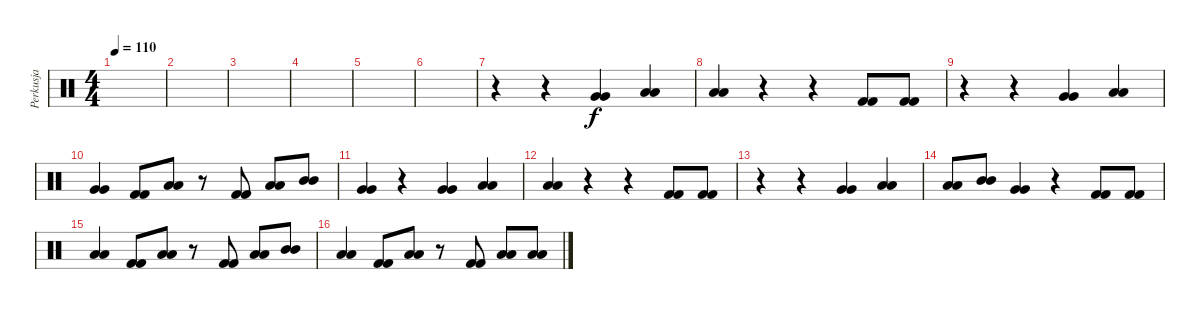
\track ("Perkusja" "Perkusja") {instrument percussion}
\staff {score}
\articulation defaults
\ts (4 4)
\tempo 110
\clef neutral
\ks c
|
|
|
|
|
|
r.4 r.4 ("Very Low Tom (hit)" "Very Low Tom (hit)").4 ("Low Floor Tom (hit)" "Low Floor Tom (hit)").4 |
("Low Tom (hit)" "Low Tom (hit)").4 r.4 r.4 ("Kick (hit) 2" "Kick (hit) 2").8 ("Kick (hit) 2" "Kick (hit) 2").8 |
r.4 r.4 ("Very Low Tom (hit)" "Very Low Tom (hit)").4 ("Low Floor Tom (hit)" "Low Floor Tom (hit)").4 |
("Very Low Tom (hit)" "Very Low Tom (hit)").4 ("Kick (hit) 2" "Kick (hit) 2").8 ("Low Tom (hit)" "Low Tom (hit)").8 r.8 ("Kick (hit) 2" "Kick (hit) 2").8 ("Low Tom (hit)" "Low Tom (hit)").8 ("Mid Tom (hit)" "Mid Tom (hit)").8 |
("Very Low Tom (hit)" "Very Low Tom (hit)").4 r.4 ("Very Low Tom (hit)" "Very Low Tom (hit)").4 ("Low Floor Tom (hit)" "Low Floor Tom (hit)").4 |
("Low Tom (hit)" "Low Tom (hit)").4 r.4 r.4 ("Kick (hit) 2" "Kick (hit) 2").8 ("Kick (hit) 2" "Kick (hit) 2").8 |
r.4 r.4 ("Very Low Tom (hit)" "Very Low Tom (hit)").4 ("Low Floor Tom (hit)" "Low Floor Tom (hit)").4 |
("Low Tom (hit)" "Low Tom (hit)").8 ("Mid Tom (hit)" "Mid Tom (hit)").8 ("Very Low Tom (hit)" "Very Low Tom (hit)").4 r.4 ("Kick (hit) 2" "Kick (hit) 2").8 ("Kick (hit) 2" "Kick (hit) 2").8 |
("Low Tom (hit)" "Low Tom (hit)").4 ("Kick (hit) 2" "Kick (hit) 2").8 ("Low Tom (hit)" "Low Tom (hit)").8 r.8 ("Kick (hit) 2" "Kick (hit) 2").8 ("Low Tom (hit)" "Low Tom (hit)").8 ("Mid Tom (hit)" "Mid Tom (hit)").8 |
("Low Floor Tom (hit)" "Low Floor Tom (hit)").4 ("Kick (hit) 2" "Kick (hit) 2").8 ("Low Floor Tom (hit)" "Low Floor Tom (hit)").8 r.8 ("Kick (hit) 2" "Kick (hit) 2").8 ("Low Floor Tom (hit)" "Low Floor Tom (hit)").8 ("Low Tom (hit)" "Low Tom (hit)").8
